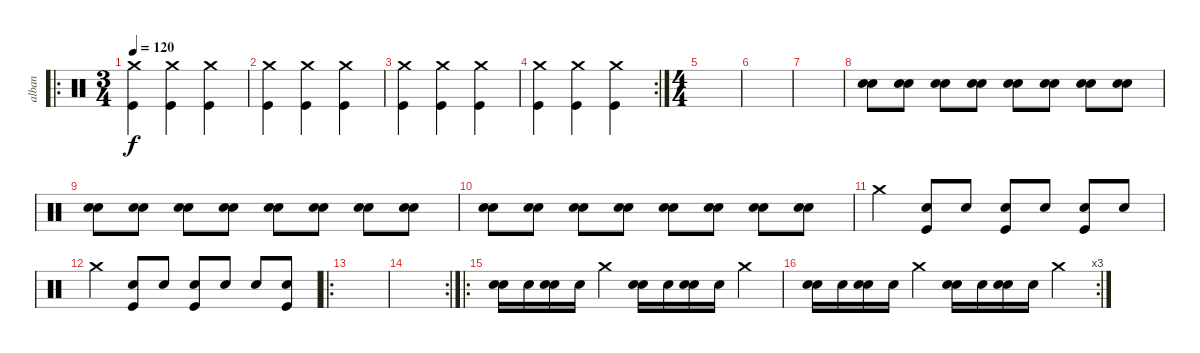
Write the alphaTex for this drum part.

\track ("alban" "alban") {instrument percussion}
\staff {score}
\articulation defaults
\ro
\ts (3 4)
\tempo 120
\clef neutral
\ks c
("Kick (hit)" "Crash medium (hit)").4{dy f} ("Kick (hit)" "Crash medium (hit)").4 ("Kick (hit)" "Crash medium (hit)").4 |
("Kick (hit)" "Crash medium (hit)").4 ("Kick (hit)" "Crash medium (hit)").4 ("Kick (hit)" "Crash medium (hit)").4 |
("Kick (hit)" "Crash medium (hit)").4 ("Kick (hit)" "Crash medium (hit)").4 ("Kick (hit)" "Crash medium (hit)").4 |
\rc 2
("Kick (hit)" "Crash medium (hit)").4 ("Kick (hit)" "Crash medium (hit)").4 ("Kick (hit)" "Crash medium (hit)").4 |
\ts (4 4)
|
|
|
("Electric Snare (hit)" "Snare (hit) 2").8 ("Electric Snare (hit)" "Snare (hit) 2").8 ("Electric Snare (hit)" "Snare (hit) 2").8 ("Electric Snare (hit)" "Snare (hit) 2").8 ("Electric Snare (hit)" "Snare (hit) 2").8 ("Electric Snare (hit)" "Snare (hit) 2").8 ("Electric Snare (hit)" "Snare (hit) 2").8 ("Electric Snare (hit)" "Snare (hit) 2").8 |
("Electric Snare (hit)" "Snare (hit) 2").8 ("Electric Snare (hit)" "Snare (hit) 2").8 ("Electric Snare (hit)" "Snare (hit) 2").8 ("Electric Snare (hit)" "Snare (hit) 2").8 ("Electric Snare (hit)" "Snare (hit) 2").8 ("Electric Snare (hit)" "Snare (hit) 2").8 ("Electric Snare (hit)" "Snare (hit) 2").8 ("Electric Snare (hit)" "Snare (hit) 2").8 |
("Electric Snare (hit)" "Snare (hit) 2").8 ("Electric Snare (hit)" "Snare (hit) 2").8 ("Electric Snare (hit)" "Snare (hit) 2").8 ("Electric Snare (hit)" "Snare (hit) 2").8 ("Electric Snare (hit)" "Snare (hit) 2").8 ("Electric Snare (hit)" "Snare (hit) 2").8 ("Electric Snare (hit)" "Snare (hit) 2").8 ("Electric Snare (hit)" "Snare (hit) 2").8 |
"Crash medium (hit)".4 ("Snare (hit) 2" "Kick (hit)").8 "Snare (hit) 2".8 ("Snare (hit) 2" "Kick (hit)").8 "Snare (hit) 2".8 ("Snare (hit) 2" "Kick (hit)").8 "Snare (hit) 2".8 |
"Crash medium (hit)".4 ("Snare (hit) 2" "Kick (hit)").8 "Snare (hit) 2".8 ("Snare (hit) 2" "Kick (hit)").8 "Snare (hit) 2".8 "Snare (hit) 2".8 ("Snare (hit) 2" "Kick (hit)").8 |
\ro
|
\rc 2
|
\ro
("Electric Snare (hit)" "Snare (hit) 2").16 "Snare (hit) 2".16 ("Electric Snare (hit)" "Snare (hit) 2").16 "Snare (hit) 2".16 "Crash medium (hit)".4 ("Electric Snare (hit)" "Snare (hit) 2").16 "Snare (hit) 2".16 ("Electric Snare (hit)" "Snare (hit) 2").16 "Snare (hit) 2".16 "Crash medium (hit)".4 |
\rc 3
("Electric Snare (hit)" "Snare (hit) 2").16 "Snare (hit) 2".16 ("Electric Snare (hit)" "Snare (hit) 2").16 "Snare (hit) 2".16 "Crash medium (hit)".4 ("Electric Snare (hit)" "Snare (hit) 2").16 "Snare (hit) 2".16 ("Electric Snare (hit)" "Snare (hit) 2").16 "Snare (hit) 2".16 "Crash medium (hit)".4
